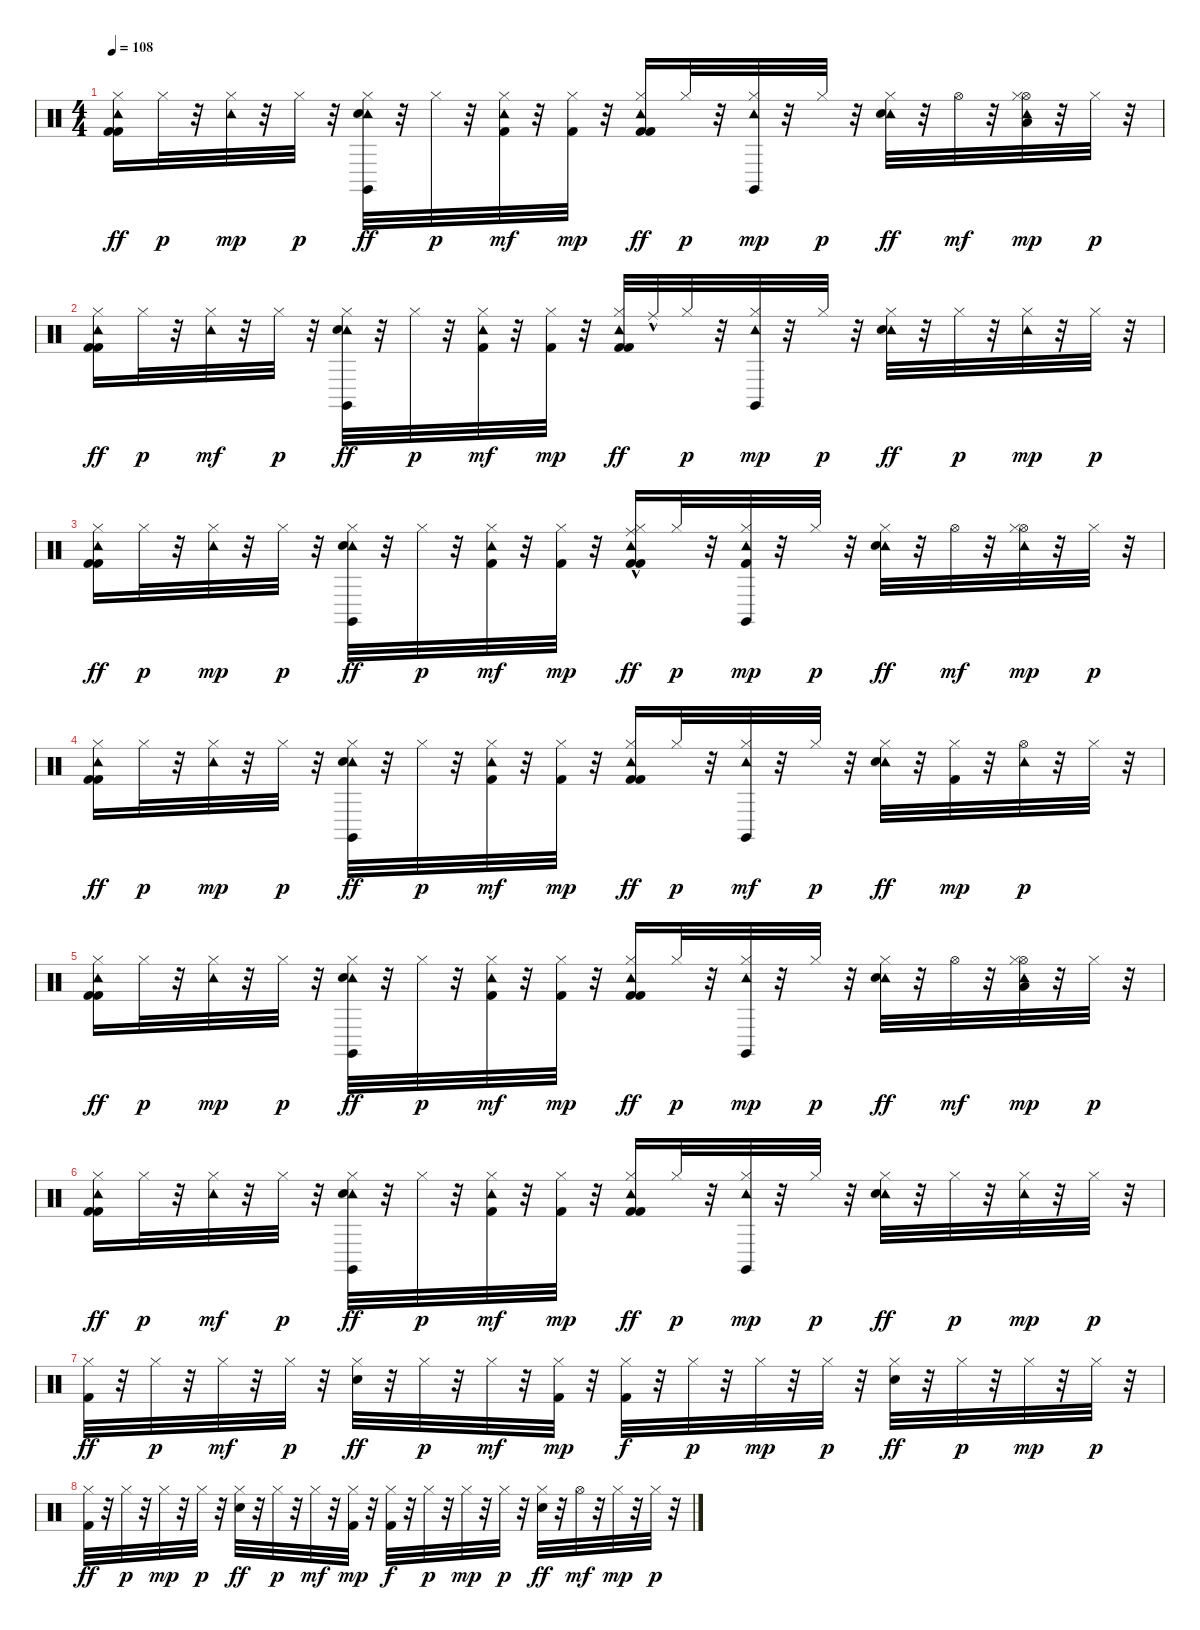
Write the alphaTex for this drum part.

\track "" {instrument percussion}
\staff {score}
\articulation defaults
\ts (4 4)
\tempo 108
\clef neutral
\ks c
("Tambourine (hit)" "Kick (hit) 2" "Hi-Hat (closed)" "Kick (hit) 2").16{dy ff} "Hi-Hat (closed)".32{dy p} r.32 ("Hi-Hat (closed)" "Tambourine (hit)").32{dy mp} r.32 "Hi-Hat (closed)".32{dy p} r.32 ("Tambourine (hit)" "Claves (hit)" "Hi-Hat (closed)" "Snare (hit) 2").32{dy ff} r.32 "Hi-Hat (closed)".32{dy p} r.32 ("Kick (hit) 2" "Tambourine (hit)" "Hi-Hat (closed)").32{dy mf} r.32 ("Hi-Hat (closed)" "Kick (hit) 2").32{dy mp} r.32 ("Tambourine (hit)" "Kick (hit) 2" "Hi-Hat (closed)" "Kick (hit) 2").16{dy ff} "Hi-Hat (closed)".32{dy p} r.32 ("Tambourine (hit)" "Claves (hit)" "Hi-Hat (closed)").32{dy mp} r.32 "Hi-Hat (closed)".32{dy p} r.32 ("Tambourine (hit)" "Hi-Hat (closed)" "Snare (hit) 2").32{dy ff} r.32 "Hi-Hat (open)".32{dy mf} r.32 ("Tambourine (hit)" "Hi-Hat (open)" "Low Tom (hit)" "Hi-Hat (closed)").32{dy mp} r.32 "Hi-Hat (closed)".32{dy p} r.32 |
("Kick (hit) 2" "Tambourine (hit)" "Hi-Hat (closed)" "Kick (hit) 2").16{dy ff} "Hi-Hat (closed)".32{dy p} r.32 ("Tambourine (hit)" "Hi-Hat (closed)").32{dy mf} r.32 "Hi-Hat (closed)".32{dy p} r.32 ("Tambourine (hit)" "Claves (hit)" "Hi-Hat (closed)" "Snare (hit) 2").32{dy ff} r.32 "Hi-Hat (closed)".32{dy p} r.32 ("Kick (hit) 2" "Tambourine (hit)" "Hi-Hat (closed)").32{dy mf} r.32 ("Hi-Hat (closed)" "Kick (hit) 2").32{dy mp} r.32 ("Tambourine (hit)" "Kick (hit) 2" "Hi-Hat (closed)" "Kick (hit) 2").32{dy ff} "Ride (middle)"{hac}.32 "Hi-Hat (closed)".32{dy p} r.32 ("Tambourine (hit)" "Claves (hit)" "Hi-Hat (closed)").32{dy mp} r.32 "Hi-Hat (closed)".32{dy p} r.32 ("Tambourine (hit)" "Hi-Hat (closed)" "Snare (hit) 2").32{dy ff} r.32 "Hi-Hat (closed)".32{dy p} r.32 ("Tambourine (hit)" "Hi-Hat (closed)").32{dy mp} r.32 "Hi-Hat (closed)".32{dy p} r.32 |
("Tambourine (hit)" "Kick (hit) 2" "Hi-Hat (closed)" "Kick (hit) 2").16{dy ff} "Hi-Hat (closed)".32{dy p} r.32 ("Hi-Hat (closed)" "Tambourine (hit)").32{dy mp} r.32 "Hi-Hat (closed)".32{dy p} r.32 ("Tambourine (hit)" "Claves (hit)" "Hi-Hat (closed)" "Snare (hit) 2").32{dy ff} r.32 "Hi-Hat (closed)".32{dy p} r.32 ("Tambourine (hit)" "Kick (hit) 2" "Hi-Hat (closed)").32{dy mf} r.32 ("Hi-Hat (closed)" "Kick (hit) 2").32{dy mp} r.32 ("Ride (middle)"{hac} "Kick (hit) 2" "Tambourine (hit)" "Hi-Hat (closed)" "Kick (hit) 2").16{dy ff} "Hi-Hat (closed)".32{dy p} r.32 ("Tambourine (hit)" "Claves (hit)" "Kick (hit) 2" "Hi-Hat (closed)").32{dy mp} r.32 "Hi-Hat (closed)".32{dy p} r.32 ("Tambourine (hit)" "Hi-Hat (closed)" "Snare (hit) 2").32{dy ff} r.32 "Hi-Hat (open)".32{dy mf} r.32 ("Tambourine (hit)" "Hi-Hat (open)" "Hi-Hat (closed)").32{dy mp} r.32 "Hi-Hat (closed)".32{dy p} r.32 |
("Kick (hit) 2" "Tambourine (hit)" "Hi-Hat (closed)" "Kick (hit) 2").16{dy ff} "Hi-Hat (closed)".32{dy p} r.32 ("Tambourine (hit)" "Hi-Hat (closed)").32{dy mp} r.32 "Hi-Hat (closed)".32{dy p} r.32 ("Tambourine (hit)" "Claves (hit)" "Hi-Hat (closed)" "Snare (hit) 2").32{dy ff} r.32 "Hi-Hat (closed)".32{dy p} r.32 ("Kick (hit) 2" "Tambourine (hit)" "Hi-Hat (closed)").32{dy mf} r.32 ("Hi-Hat (closed)" "Kick (hit) 2").32{dy mp} r.32 ("Kick (hit) 2" "Tambourine (hit)" "Hi-Hat (closed)" "Kick (hit) 2").16{dy ff} "Hi-Hat (closed)".32{dy p} r.32 ("Tambourine (hit)" "Claves (hit)" "Hi-Hat (closed)").32{dy mf} r.32 "Hi-Hat (closed)".32{dy p} r.32 ("Tambourine (hit)" "Hi-Hat (closed)" "Snare (hit) 2").32{dy ff} r.32 ("Hi-Hat (closed)" "Kick (hit) 2").32{dy mp} r.32 ("Tambourine (hit)" "Hi-Hat (open)").32{dy p} r.32 "Hi-Hat (closed)".32 r.32 |
("Tambourine (hit)" "Kick (hit) 2" "Hi-Hat (closed)" "Kick (hit) 2").16{dy ff} "Hi-Hat (closed)".32{dy p} r.32 ("Hi-Hat (closed)" "Tambourine (hit)").32{dy mp} r.32 "Hi-Hat (closed)".32{dy p} r.32 ("Tambourine (hit)" "Claves (hit)" "Hi-Hat (closed)" "Snare (hit) 2").32{dy ff} r.32 "Hi-Hat (closed)".32{dy p} r.32 ("Tambourine (hit)" "Kick (hit) 2" "Hi-Hat (closed)").32{dy mf} r.32 ("Hi-Hat (closed)" "Kick (hit) 2").32{dy mp} r.32 ("Tambourine (hit)" "Kick (hit) 2" "Hi-Hat (closed)" "Kick (hit) 2").16{dy ff} "Hi-Hat (closed)".32{dy p} r.32 ("Tambourine (hit)" "Claves (hit)" "Hi-Hat (closed)").32{dy mp} r.32 "Hi-Hat (closed)".32{dy p} r.32 ("Tambourine (hit)" "Hi-Hat (closed)" "Snare (hit) 2").32{dy ff} r.32 "Hi-Hat (open)".32{dy mf} r.32 ("Tambourine (hit)" "Hi-Hat (open)" "Low Tom (hit)" "Hi-Hat (closed)").32{dy mp} r.32 "Hi-Hat (closed)".32{dy p} r.32 |
("Kick (hit) 2" "Tambourine (hit)" "Hi-Hat (closed)" "Kick (hit) 2").16{dy ff} "Hi-Hat (closed)".32{dy p} r.32 ("Tambourine (hit)" "Hi-Hat (closed)").32{dy mf} r.32 "Hi-Hat (closed)".32{dy p} r.32 ("Tambourine (hit)" "Claves (hit)" "Hi-Hat (closed)" "Snare (hit) 2").32{dy ff} r.32 "Hi-Hat (closed)".32{dy p} r.32 ("Tambourine (hit)" "Kick (hit) 2" "Hi-Hat (closed)").32{dy mf} r.32 ("Hi-Hat (closed)" "Kick (hit) 2").32{dy mp} r.32 ("Tambourine (hit)" "Kick (hit) 2" "Hi-Hat (closed)" "Kick (hit) 2").16{dy ff} "Hi-Hat (closed)".32{dy p} r.32 ("Tambourine (hit)" "Claves (hit)" "Hi-Hat (closed)").32{dy mp} r.32 "Hi-Hat (closed)".32{dy p} r.32 ("Tambourine (hit)" "Hi-Hat (closed)" "Snare (hit) 2").32{dy ff} r.32 "Hi-Hat (closed)".32{dy p} r.32 ("Tambourine (hit)" "Hi-Hat (closed)").32{dy mp} r.32 "Hi-Hat (closed)".32{dy p} r.32 |
("Hi-Hat (closed)" "Kick (hit) 2").32{dy ff} r.32 "Hi-Hat (closed)".32{dy p} r.32 "Hi-Hat (closed)".32{dy mf} r.32 "Hi-Hat (closed)".32{dy p} r.32 ("Hi-Hat (closed)" "Snare (hit) 2").32{dy ff} r.32 "Hi-Hat (closed)".32{dy p} r.32 "Hi-Hat (closed)".32{dy mf} r.32 ("Hi-Hat (closed)" "Kick (hit) 2").32{dy mp} r.32 ("Hi-Hat (closed)" "Kick (hit) 2").32{dy f} r.32 "Hi-Hat (closed)".32{dy p} r.32 "Hi-Hat (closed)".32{dy mp} r.32 "Hi-Hat (closed)".32{dy p} r.32 ("Hi-Hat (closed)" "Snare (hit) 2").32{dy ff} r.32 "Hi-Hat (closed)".32{dy p} r.32 "Hi-Hat (closed)".32{dy mp} r.32 "Hi-Hat (closed)".32{dy p} r.32 |
("Hi-Hat (closed)" "Kick (hit) 2").32{dy ff} r.32 "Hi-Hat (closed)".32{dy p} r.32 "Hi-Hat (closed)".32{dy mp} r.32 "Hi-Hat (closed)".32{dy p} r.32 ("Hi-Hat (closed)" "Snare (hit) 2").32{dy ff} r.32 "Hi-Hat (closed)".32{dy p} r.32 "Hi-Hat (closed)".32{dy mf} r.32 ("Hi-Hat (closed)" "Kick (hit) 2").32{dy mp} r.32 ("Hi-Hat (closed)" "Kick (hit) 2").32{dy f} r.32 "Hi-Hat (closed)".32{dy p} r.32 "Hi-Hat (closed)".32{dy mp} r.32 "Hi-Hat (closed)".32{dy p} r.32 ("Hi-Hat (closed)" "Snare (hit) 2").32{dy ff} r.32 "Hi-Hat (open)".32{dy mf} r.32 "Hi-Hat (closed)".32{dy mp} r.32 "Hi-Hat (closed)".32{dy p} r.32
